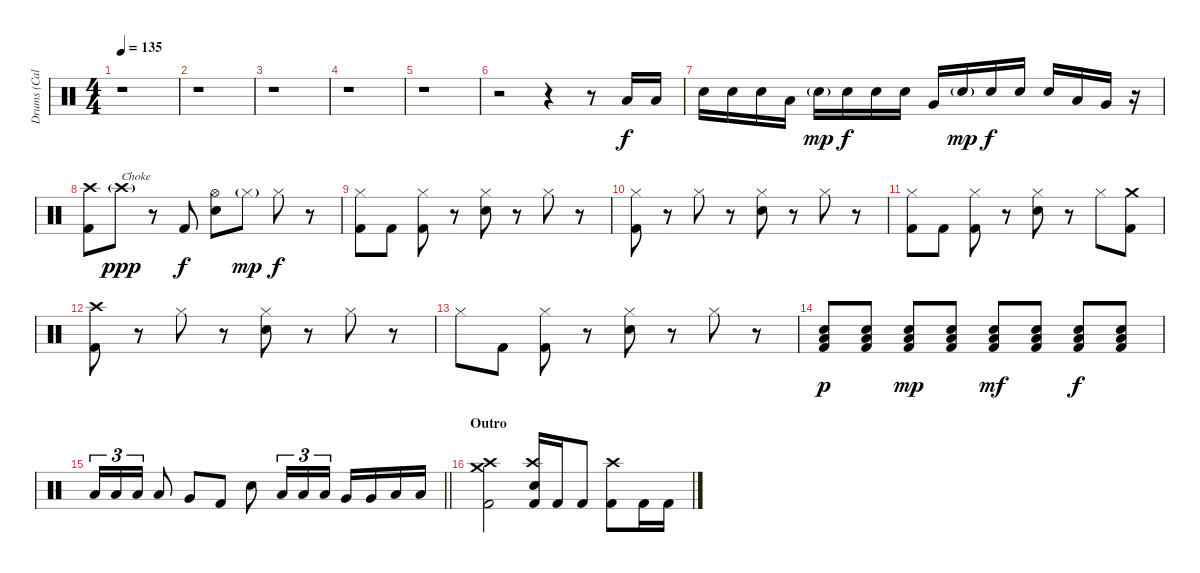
\track ("Drums (Caleb Burton)" "Drums (Cal") {instrument percussion}
\staff {score}
\articulation defaults
\ts (4 4)
\tempo 135
\clef neutral
\ks c
r.1{dy f} |
r.1 |
r.1 |
r.1 |
r.1 |
r.2 r.4 r.8 "Low Tom (hit)".16 "Low Tom (hit)".16 |
"Electric Snare (hit)".16 "Electric Snare (hit)".16 "Electric Snare (hit)".16 "Low Tom (hit)".16 "Electric Snare (hit)"{g}.16{dy mp} "Electric Snare (hit)".16{dy f} "Electric Snare (hit)".16 "Electric Snare (hit)".16 "Very Low Tom (hit)".16 "Electric Snare (hit)"{g}.16{dy mp} "Electric Snare (hit)".16{dy f} "Electric Snare (hit)".16 "Electric Snare (hit)".16 "Low Tom (hit)".16 "Very Low Tom (hit)".16 r.16 |
("Crash high (hit)" "Kick (hit) 2").8 "Crash high (hit)"{g}.8{txt "Choke" dy ppp} r.8 "Kick (hit) 2".8{dy f} ("Hi-Hat (open)" "Electric Snare (hit)").8 "Hi-Hat (closed)"{g}.8{dy mp} "Hi-Hat (closed)".8{dy f} r.8 |
("Hi-Hat (closed)" "Kick (hit) 2").8 "Kick (hit) 2".8 ("Hi-Hat (closed)" "Kick (hit) 2").8 r.8 ("Hi-Hat (closed)" "Electric Snare (hit)").8 r.8 "Hi-Hat (closed)".8 r.8 |
("Hi-Hat (closed)" "Kick (hit) 2").8 r.8 "Hi-Hat (closed)".8 r.8 ("Hi-Hat (closed)" "Electric Snare (hit)").8 r.8 "Hi-Hat (closed)".8 r.8 |
("Hi-Hat (closed)" "Kick (hit) 2").8 "Kick (hit) 2".8 ("Hi-Hat (closed)" "Kick (hit) 2").8 r.8 ("Hi-Hat (closed)" "Electric Snare (hit)").8 r.8 "Hi-Hat (closed)".8 ("Crash medium (hit)" "Kick (hit) 2").8 |
("Crash high (hit)" "Kick (hit) 2").8 r.8 "Hi-Hat (closed)".8 r.8 ("Hi-Hat (closed)" "Electric Snare (hit)").8 r.8 "Hi-Hat (closed)".8 r.8 |
"Hi-Hat (closed)".8 "Kick (hit) 2".8 ("Hi-Hat (closed)" "Kick (hit) 2").8 r.8 ("Hi-Hat (closed)" "Electric Snare (hit)").8 r.8 "Hi-Hat (closed)".8 r.8 |
("Electric Snare (hit)" "Low Tom (hit)" "Kick (hit) 2").8{dy p} ("Electric Snare (hit)" "Low Tom (hit)" "Kick (hit) 2").8 ("Electric Snare (hit)" "Low Tom (hit)" "Kick (hit) 2").8{dy mp} ("Electric Snare (hit)" "Low Tom (hit)" "Kick (hit) 2").8 ("Electric Snare (hit)" "Low Tom (hit)" "Kick (hit) 2").8{dy mf} ("Electric Snare (hit)" "Low Tom (hit)" "Kick (hit) 2").8 ("Electric Snare (hit)" "Low Tom (hit)" "Kick (hit) 2").8{dy f} ("Electric Snare (hit)" "Low Tom (hit)" "Kick (hit) 2").8 |
\barLineRight lightlight "Low Tom (hit)".16{tu (3 2)} "Low Tom (hit)".16{tu (3 2)} "Low Tom (hit)".16{tu (3 2)} "Low Tom (hit)".8 "Very Low Tom (hit)".8 "Kick (hit) 2".8 "Electric Snare (hit)".8 "Low Tom (hit)".16{tu (3 2)} "Low Tom (hit)".16{tu (3 2)} "Low Tom (hit)".16{tu (3 2)} "Very Low Tom (hit)".16 "Very Low Tom (hit)".16 "Low Floor Tom (hit)".16 "Low Floor Tom (hit)".16
|
\section ("" "Outro")
("Crash high (hit)" "Crash medium (hit)" "Kick (hit) 2").2 ("Crash high (hit)" "Electric Snare (hit)" "Kick (hit) 2").16 "Kick (hit) 2".16 "Kick (hit) 2".8 ("Crash high (hit)" "Kick (hit) 2").8 "Kick (hit) 2".16 "Kick (hit) 2".16
